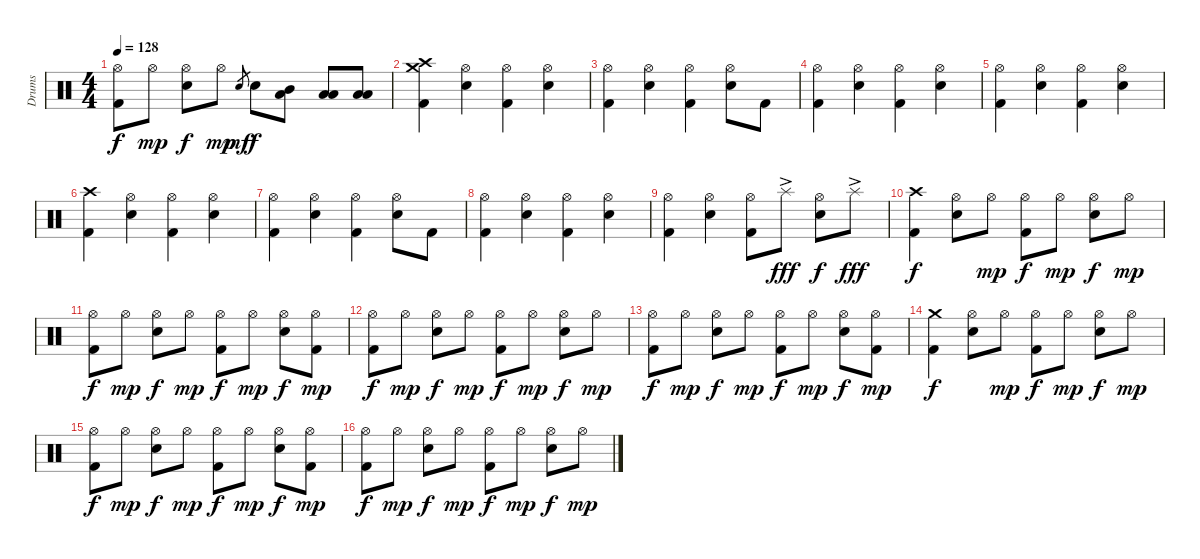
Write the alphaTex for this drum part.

\track ("Drums" "Drums") {instrument percussion}
\staff {score}
\articulation defaults
\ts (4 4)
\tempo 128
\clef neutral
\ks c
("Hi-Hat (open)" "Kick (hit) 2").8{dy f} "Hi-Hat (open)".8{dy mp} ("Hi-Hat (open)" "Snare (hit) 2").8{dy f} "Hi-Hat (open)".8{dy mp} "Snare (hit) 2".8{gr dy mf} "Snare (hit) 2".8{dy f} ("Mid Tom (hit)" "Low Floor Tom (hit)").8 ("Low Tom (hit)" "Low Floor Tom (hit)").8 ("Low Tom (hit)" "Low Floor Tom (hit)").8 |
("Crash high (hit)" "Crash medium (hit)" "Kick (hit) 2").4 ("Hi-Hat (open)" "Snare (hit) 2").4 ("Hi-Hat (open)" "Kick (hit) 2").4 ("Hi-Hat (open)" "Snare (hit) 2").4 |
("Hi-Hat (open)" "Kick (hit) 2").4 ("Hi-Hat (open)" "Snare (hit) 2").4 ("Hi-Hat (open)" "Kick (hit) 2").4 ("Hi-Hat (open)" "Snare (hit) 2").8 "Kick (hit) 2".8 |
("Hi-Hat (open)" "Kick (hit) 2").4 ("Hi-Hat (open)" "Snare (hit) 2").4 ("Hi-Hat (open)" "Kick (hit) 2").4 ("Hi-Hat (open)" "Snare (hit) 2").4 |
("Hi-Hat (open)" "Kick (hit) 2").4 ("Hi-Hat (open)" "Snare (hit) 2").4 ("Hi-Hat (open)" "Kick (hit) 2").4 ("Hi-Hat (open)" "Snare (hit) 2").4 |
("Crash high (hit)" "Kick (hit) 2").4 ("Hi-Hat (open)" "Snare (hit) 2").4 ("Hi-Hat (open)" "Kick (hit) 2").4 ("Hi-Hat (open)" "Snare (hit) 2").4 |
("Hi-Hat (open)" "Kick (hit) 2").4 ("Hi-Hat (open)" "Snare (hit) 2").4 ("Hi-Hat (open)" "Kick (hit) 2").4 ("Hi-Hat (open)" "Snare (hit) 2").8 "Kick (hit) 2".8 |
("Hi-Hat (open)" "Kick (hit) 2").4 ("Hi-Hat (open)" "Snare (hit) 2").4 ("Hi-Hat (open)" "Kick (hit) 2").4 ("Hi-Hat (open)" "Snare (hit) 2").4 |
("Hi-Hat (open)" "Kick (hit) 2").4 ("Hi-Hat (open)" "Snare (hit) 2").4 ("Hi-Hat (open)" "Kick (hit) 2").8 "Splash (hit)"{ac}.8{dy fff} ("Hi-Hat (open)" "Snare (hit) 2").8{dy f} "Splash (hit)"{ac}.8{dy fff} |
("Crash high (hit)" "Kick (hit) 2").4{dy f} ("Hi-Hat (open)" "Snare (hit) 2").8 "Hi-Hat (open)".8{dy mp} ("Hi-Hat (open)" "Kick (hit) 2").8{dy f} "Hi-Hat (open)".8{dy mp} ("Hi-Hat (open)" "Snare (hit) 2").8{dy f} "Hi-Hat (open)".8{dy mp} |
("Hi-Hat (open)" "Kick (hit) 2").8{dy f} "Hi-Hat (open)".8{dy mp} ("Hi-Hat (open)" "Snare (hit) 2").8{dy f} "Hi-Hat (open)".8{dy mp} ("Hi-Hat (open)" "Kick (hit) 2").8{dy f} "Hi-Hat (open)".8{dy mp} ("Hi-Hat (open)" "Snare (hit) 2").8{dy f} ("Hi-Hat (open)" "Kick (hit) 2").8{dy mp} |
("Hi-Hat (open)" "Kick (hit) 2").8{dy f} "Hi-Hat (open)".8{dy mp} ("Hi-Hat (open)" "Snare (hit) 2").8{dy f} "Hi-Hat (open)".8{dy mp} ("Hi-Hat (open)" "Kick (hit) 2").8{dy f} "Hi-Hat (open)".8{dy mp} ("Hi-Hat (open)" "Snare (hit) 2").8{dy f} "Hi-Hat (open)".8{dy mp} |
("Hi-Hat (open)" "Kick (hit) 2").8{dy f} "Hi-Hat (open)".8{dy mp} ("Hi-Hat (open)" "Snare (hit) 2").8{dy f} "Hi-Hat (open)".8{dy mp} ("Hi-Hat (open)" "Kick (hit) 2").8{dy f} "Hi-Hat (open)".8{dy mp} ("Hi-Hat (open)" "Snare (hit) 2").8{dy f} ("Hi-Hat (open)" "Kick (hit) 2").8{dy mp} |
("Crash medium (hit)" "Kick (hit) 2").4{dy f} ("Hi-Hat (open)" "Snare (hit) 2").8 "Hi-Hat (open)".8{dy mp} ("Hi-Hat (open)" "Kick (hit) 2").8{dy f} "Hi-Hat (open)".8{dy mp} ("Hi-Hat (open)" "Snare (hit) 2").8{dy f} "Hi-Hat (open)".8{dy mp} |
("Hi-Hat (open)" "Kick (hit) 2").8{dy f} "Hi-Hat (open)".8{dy mp} ("Hi-Hat (open)" "Snare (hit) 2").8{dy f} "Hi-Hat (open)".8{dy mp} ("Hi-Hat (open)" "Kick (hit) 2").8{dy f} "Hi-Hat (open)".8{dy mp} ("Hi-Hat (open)" "Snare (hit) 2").8{dy f} ("Hi-Hat (open)" "Kick (hit) 2").8{dy mp} |
("Hi-Hat (open)" "Kick (hit) 2").8{dy f} "Hi-Hat (open)".8{dy mp} ("Hi-Hat (open)" "Snare (hit) 2").8{dy f} "Hi-Hat (open)".8{dy mp} ("Hi-Hat (open)" "Kick (hit) 2").8{dy f} "Hi-Hat (open)".8{dy mp} ("Hi-Hat (open)" "Snare (hit) 2").8{dy f} "Hi-Hat (open)".8{dy mp}
